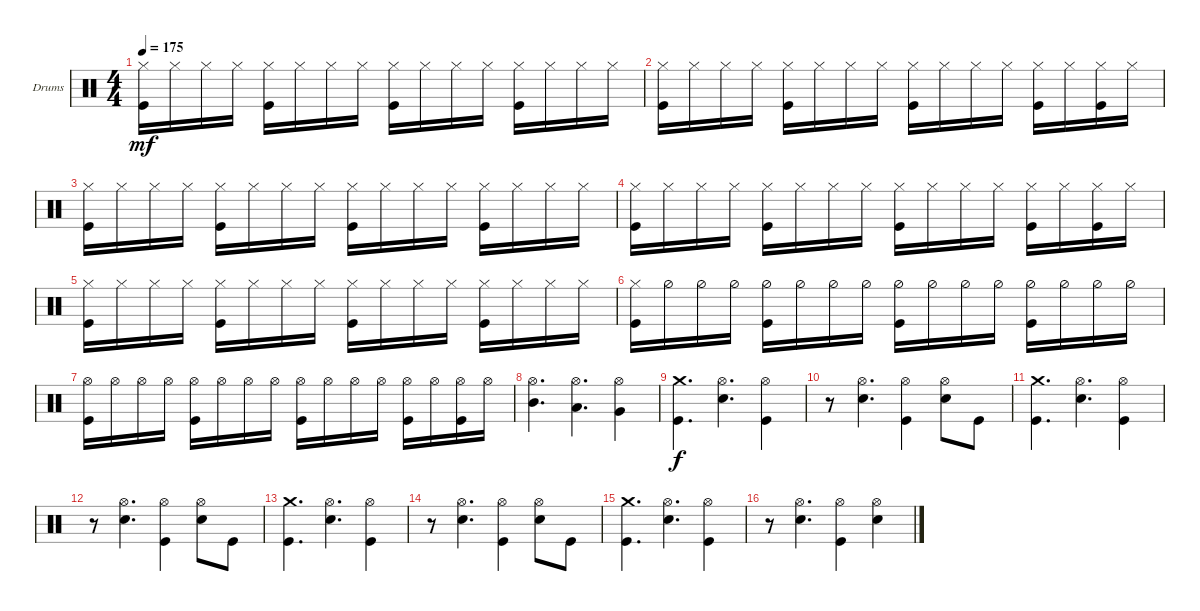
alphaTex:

\defaultSystemsLayout 4
\bracketExtendMode groupsimilarinstruments
\firstSystemTrackNameOrientation horizontal
\otherSystemsTrackNameOrientation horizontal
\track ("Drumkit" "Drums") {instrument percussion}
\staff {score}
\articulation defaults
\ts (4 4)
\tempo 175
\clef neutral
\ks c
("Hi-Hat (closed)" "Kick (hit)").16{dy mf} "Hi-Hat (closed)".16 "Hi-Hat (closed)".16 "Hi-Hat (closed)".16 ("Hi-Hat (closed)" "Kick (hit)").16 "Hi-Hat (closed)".16 "Hi-Hat (closed)".16 "Hi-Hat (closed)".16 ("Hi-Hat (closed)" "Kick (hit)").16 "Hi-Hat (closed)".16 "Hi-Hat (closed)".16 "Hi-Hat (closed)".16 ("Hi-Hat (closed)" "Kick (hit)").16 "Hi-Hat (closed)".16 "Hi-Hat (closed)".16 "Hi-Hat (closed)".16 |
("Hi-Hat (closed)" "Kick (hit)").16 "Hi-Hat (closed)".16 "Hi-Hat (closed)".16 "Hi-Hat (closed)".16 ("Hi-Hat (closed)" "Kick (hit)").16 "Hi-Hat (closed)".16 "Hi-Hat (closed)".16 "Hi-Hat (closed)".16 ("Hi-Hat (closed)" "Kick (hit)").16 "Hi-Hat (closed)".16 "Hi-Hat (closed)".16 "Hi-Hat (closed)".16 ("Hi-Hat (closed)" "Kick (hit)").16 "Hi-Hat (closed)".16 ("Hi-Hat (closed)" "Kick (hit)").16 "Hi-Hat (closed)".16 |
("Hi-Hat (closed)" "Kick (hit)").16 "Hi-Hat (closed)".16 "Hi-Hat (closed)".16 "Hi-Hat (closed)".16 ("Hi-Hat (closed)" "Kick (hit)").16 "Hi-Hat (closed)".16 "Hi-Hat (closed)".16 "Hi-Hat (closed)".16 ("Hi-Hat (closed)" "Kick (hit)").16 "Hi-Hat (closed)".16 "Hi-Hat (closed)".16 "Hi-Hat (closed)".16 ("Hi-Hat (closed)" "Kick (hit)").16 "Hi-Hat (closed)".16 "Hi-Hat (closed)".16 "Hi-Hat (closed)".16 |
("Hi-Hat (closed)" "Kick (hit)").16 "Hi-Hat (closed)".16 "Hi-Hat (closed)".16 "Hi-Hat (closed)".16 ("Hi-Hat (closed)" "Kick (hit)").16 "Hi-Hat (closed)".16 "Hi-Hat (closed)".16 "Hi-Hat (closed)".16 ("Hi-Hat (closed)" "Kick (hit)").16 "Hi-Hat (closed)".16 "Hi-Hat (closed)".16 "Hi-Hat (closed)".16 ("Hi-Hat (closed)" "Kick (hit)").16 "Hi-Hat (closed)".16 ("Hi-Hat (closed)" "Kick (hit)").16 "Hi-Hat (closed)".16 |
("Hi-Hat (closed)" "Kick (hit)").16 "Hi-Hat (closed)".16 "Hi-Hat (closed)".16 "Hi-Hat (closed)".16 ("Hi-Hat (closed)" "Kick (hit)").16 "Hi-Hat (closed)".16 "Hi-Hat (closed)".16 "Hi-Hat (closed)".16 ("Hi-Hat (closed)" "Kick (hit)").16 "Hi-Hat (closed)".16 "Hi-Hat (closed)".16 "Hi-Hat (closed)".16 ("Hi-Hat (closed)" "Kick (hit)").16 "Hi-Hat (closed)".16 "Hi-Hat (closed)".16 "Hi-Hat (closed)".16 |
("Hi-Hat (closed)" "Kick (hit)").16 "Hi-Hat (half)".16 "Hi-Hat (half)".16 "Hi-Hat (half)".16 ("Hi-Hat (half)" "Kick (hit)").16 "Hi-Hat (half)".16 "Hi-Hat (half)".16 "Hi-Hat (half)".16 ("Hi-Hat (half)" "Kick (hit)").16 "Hi-Hat (half)".16 "Hi-Hat (half)".16 "Hi-Hat (half)".16 ("Hi-Hat (half)" "Kick (hit)").16 "Hi-Hat (half)".16 "Hi-Hat (half)".16 "Hi-Hat (half)".16 |
("Hi-Hat (open)" "Kick (hit)").16 "Hi-Hat (open)".16 "Hi-Hat (open)".16 "Hi-Hat (open)".16 ("Hi-Hat (open)" "Kick (hit)").16 "Hi-Hat (open)".16 "Hi-Hat (open)".16 "Hi-Hat (open)".16 ("Hi-Hat (open)" "Kick (hit)").16 "Hi-Hat (open)".16 "Hi-Hat (open)".16 "Hi-Hat (open)".16 ("Hi-Hat (open)" "Kick (hit)").16 "Hi-Hat (open)".16 ("Hi-Hat (open)" "Kick (hit)").16 "Hi-Hat (open)".16 |
("Mid Tom (hit)" "Hi-Hat (open)").4{d} ("Low Tom (hit)" "Hi-Hat (open)").4{d} ("Very Low Tom (hit)" "Hi-Hat (open)").4 |
("Crash medium (hit)" "Kick (hit)").4{d dy f} ("Hi-Hat (open)" "Snare (hit) 2").4{d} ("Hi-Hat (open)" "Kick (hit)").4 |
r.8 ("Hi-Hat (open)" "Snare (hit) 2").4{d} ("Hi-Hat (open)" "Kick (hit)").4 ("Hi-Hat (open)" "Snare (hit) 2").8 "Kick (hit)".8 |
("Crash medium (hit)" "Kick (hit)").4{d} ("Hi-Hat (open)" "Snare (hit) 2").4{d} ("Hi-Hat (open)" "Kick (hit)").4 |
r.8 ("Hi-Hat (open)" "Snare (hit) 2").4{d} ("Hi-Hat (open)" "Kick (hit)").4 ("Hi-Hat (open)" "Snare (hit) 2").8 "Kick (hit)".8 |
("Crash medium (hit)" "Kick (hit)").4{d} ("Hi-Hat (open)" "Snare (hit) 2").4{d} ("Hi-Hat (open)" "Kick (hit)").4 |
r.8 ("Hi-Hat (open)" "Snare (hit) 2").4{d} ("Hi-Hat (open)" "Kick (hit)").4 ("Hi-Hat (open)" "Snare (hit) 2").8 "Kick (hit)".8 |
("Crash medium (hit)" "Kick (hit)").4{d} ("Hi-Hat (open)" "Snare (hit) 2").4{d} ("Hi-Hat (open)" "Kick (hit)").4 |
r.8 ("Hi-Hat (open)" "Snare (hit) 2").4{d} ("Hi-Hat (open)" "Kick (hit)").4 ("Hi-Hat (open)" "Snare (hit) 2").4
